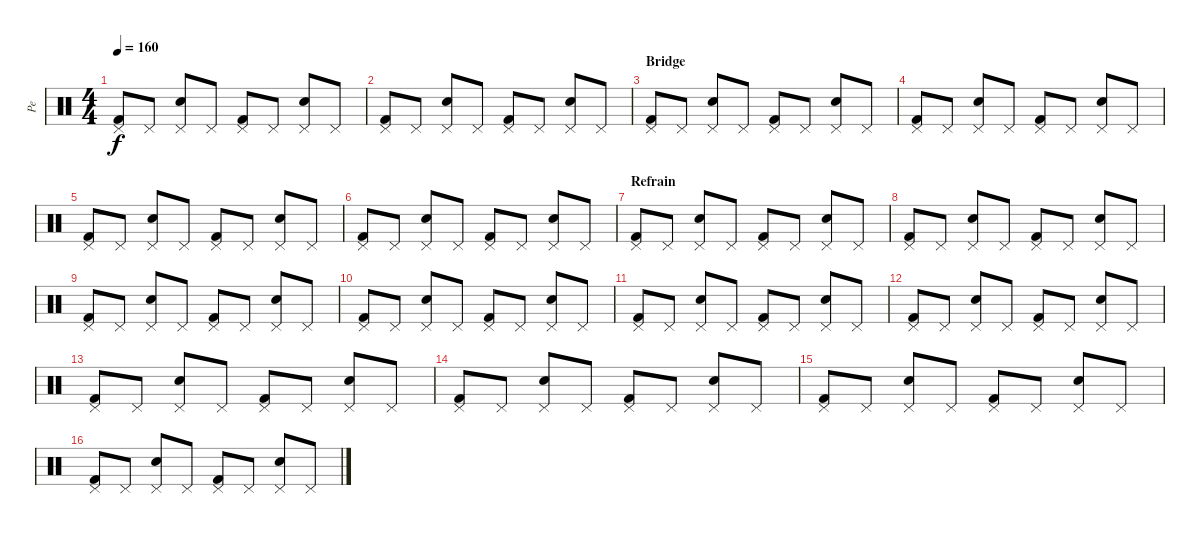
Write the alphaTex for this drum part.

\track ("Pe" "Pe") {instrument percussion}
\staff {score}
\articulation defaults
\ts (4 4)
\tempo 160
\clef neutral
\ks c
("Pedal Hi-Hat (hit)" "Kick (hit) 2").8{dy f} "Pedal Hi-Hat (hit)".8 ("Pedal Hi-Hat (hit)" "Electric Snare (hit)").8 "Pedal Hi-Hat (hit)".8 ("Pedal Hi-Hat (hit)" "Kick (hit) 2").8 "Pedal Hi-Hat (hit)".8 ("Pedal Hi-Hat (hit)" "Electric Snare (hit)").8 "Pedal Hi-Hat (hit)".8 |
("Pedal Hi-Hat (hit)" "Kick (hit) 2").8 "Pedal Hi-Hat (hit)".8 ("Pedal Hi-Hat (hit)" "Electric Snare (hit)").8 "Pedal Hi-Hat (hit)".8 ("Pedal Hi-Hat (hit)" "Kick (hit) 2").8 "Pedal Hi-Hat (hit)".8 ("Pedal Hi-Hat (hit)" "Electric Snare (hit)").8 "Pedal Hi-Hat (hit)".8 |
\section ("" "Bridge")
("Pedal Hi-Hat (hit)" "Kick (hit) 2").8 "Pedal Hi-Hat (hit)".8 ("Pedal Hi-Hat (hit)" "Electric Snare (hit)").8 "Pedal Hi-Hat (hit)".8 ("Pedal Hi-Hat (hit)" "Kick (hit) 2").8 "Pedal Hi-Hat (hit)".8 ("Pedal Hi-Hat (hit)" "Electric Snare (hit)").8 "Pedal Hi-Hat (hit)".8 |
("Pedal Hi-Hat (hit)" "Kick (hit) 2").8 "Pedal Hi-Hat (hit)".8 ("Pedal Hi-Hat (hit)" "Electric Snare (hit)").8 "Pedal Hi-Hat (hit)".8 ("Pedal Hi-Hat (hit)" "Kick (hit) 2").8 "Pedal Hi-Hat (hit)".8 ("Pedal Hi-Hat (hit)" "Electric Snare (hit)").8 "Pedal Hi-Hat (hit)".8 |
("Pedal Hi-Hat (hit)" "Kick (hit) 2").8 "Pedal Hi-Hat (hit)".8 ("Pedal Hi-Hat (hit)" "Electric Snare (hit)").8 "Pedal Hi-Hat (hit)".8 ("Pedal Hi-Hat (hit)" "Kick (hit) 2").8 "Pedal Hi-Hat (hit)".8 ("Pedal Hi-Hat (hit)" "Electric Snare (hit)").8 "Pedal Hi-Hat (hit)".8 |
("Pedal Hi-Hat (hit)" "Kick (hit) 2").8 "Pedal Hi-Hat (hit)".8 ("Pedal Hi-Hat (hit)" "Electric Snare (hit)").8 "Pedal Hi-Hat (hit)".8 ("Pedal Hi-Hat (hit)" "Kick (hit) 2").8 "Pedal Hi-Hat (hit)".8 ("Pedal Hi-Hat (hit)" "Electric Snare (hit)").8 "Pedal Hi-Hat (hit)".8 |
\section ("" "Refrain")
("Pedal Hi-Hat (hit)" "Kick (hit) 2").8 "Pedal Hi-Hat (hit)".8 ("Pedal Hi-Hat (hit)" "Electric Snare (hit)").8 "Pedal Hi-Hat (hit)".8 ("Pedal Hi-Hat (hit)" "Kick (hit) 2").8 "Pedal Hi-Hat (hit)".8 ("Pedal Hi-Hat (hit)" "Electric Snare (hit)").8 "Pedal Hi-Hat (hit)".8 |
("Pedal Hi-Hat (hit)" "Kick (hit) 2").8 "Pedal Hi-Hat (hit)".8 ("Pedal Hi-Hat (hit)" "Electric Snare (hit)").8 "Pedal Hi-Hat (hit)".8 ("Pedal Hi-Hat (hit)" "Kick (hit) 2").8 "Pedal Hi-Hat (hit)".8 ("Pedal Hi-Hat (hit)" "Electric Snare (hit)").8 "Pedal Hi-Hat (hit)".8 |
("Pedal Hi-Hat (hit)" "Kick (hit) 2").8 "Pedal Hi-Hat (hit)".8 ("Pedal Hi-Hat (hit)" "Electric Snare (hit)").8 "Pedal Hi-Hat (hit)".8 ("Pedal Hi-Hat (hit)" "Kick (hit) 2").8 "Pedal Hi-Hat (hit)".8 ("Pedal Hi-Hat (hit)" "Electric Snare (hit)").8 "Pedal Hi-Hat (hit)".8 |
("Pedal Hi-Hat (hit)" "Kick (hit) 2").8 "Pedal Hi-Hat (hit)".8 ("Pedal Hi-Hat (hit)" "Electric Snare (hit)").8 "Pedal Hi-Hat (hit)".8 ("Pedal Hi-Hat (hit)" "Kick (hit) 2").8 "Pedal Hi-Hat (hit)".8 ("Pedal Hi-Hat (hit)" "Electric Snare (hit)").8 "Pedal Hi-Hat (hit)".8 |
("Pedal Hi-Hat (hit)" "Kick (hit) 2").8 "Pedal Hi-Hat (hit)".8 ("Pedal Hi-Hat (hit)" "Electric Snare (hit)").8 "Pedal Hi-Hat (hit)".8 ("Pedal Hi-Hat (hit)" "Kick (hit) 2").8 "Pedal Hi-Hat (hit)".8 ("Pedal Hi-Hat (hit)" "Electric Snare (hit)").8 "Pedal Hi-Hat (hit)".8 |
("Pedal Hi-Hat (hit)" "Kick (hit) 2").8 "Pedal Hi-Hat (hit)".8 ("Pedal Hi-Hat (hit)" "Electric Snare (hit)").8 "Pedal Hi-Hat (hit)".8 ("Pedal Hi-Hat (hit)" "Kick (hit) 2").8 "Pedal Hi-Hat (hit)".8 ("Pedal Hi-Hat (hit)" "Electric Snare (hit)").8 "Pedal Hi-Hat (hit)".8 |
("Pedal Hi-Hat (hit)" "Kick (hit) 2").8 "Pedal Hi-Hat (hit)".8 ("Pedal Hi-Hat (hit)" "Electric Snare (hit)").8 "Pedal Hi-Hat (hit)".8 ("Pedal Hi-Hat (hit)" "Kick (hit) 2").8 "Pedal Hi-Hat (hit)".8 ("Pedal Hi-Hat (hit)" "Electric Snare (hit)").8 "Pedal Hi-Hat (hit)".8 |
("Pedal Hi-Hat (hit)" "Kick (hit) 2").8 "Pedal Hi-Hat (hit)".8 ("Pedal Hi-Hat (hit)" "Electric Snare (hit)").8 "Pedal Hi-Hat (hit)".8 ("Pedal Hi-Hat (hit)" "Kick (hit) 2").8 "Pedal Hi-Hat (hit)".8 ("Pedal Hi-Hat (hit)" "Electric Snare (hit)").8 "Pedal Hi-Hat (hit)".8 |
("Pedal Hi-Hat (hit)" "Kick (hit) 2").8 "Pedal Hi-Hat (hit)".8 ("Pedal Hi-Hat (hit)" "Electric Snare (hit)").8 "Pedal Hi-Hat (hit)".8 ("Pedal Hi-Hat (hit)" "Kick (hit) 2").8 "Pedal Hi-Hat (hit)".8 ("Pedal Hi-Hat (hit)" "Electric Snare (hit)").8 "Pedal Hi-Hat (hit)".8 |
("Pedal Hi-Hat (hit)" "Kick (hit) 2").8 "Pedal Hi-Hat (hit)".8 ("Pedal Hi-Hat (hit)" "Electric Snare (hit)").8 "Pedal Hi-Hat (hit)".8 ("Pedal Hi-Hat (hit)" "Kick (hit) 2").8 "Pedal Hi-Hat (hit)".8 ("Pedal Hi-Hat (hit)" "Electric Snare (hit)").8 "Pedal Hi-Hat (hit)".8
